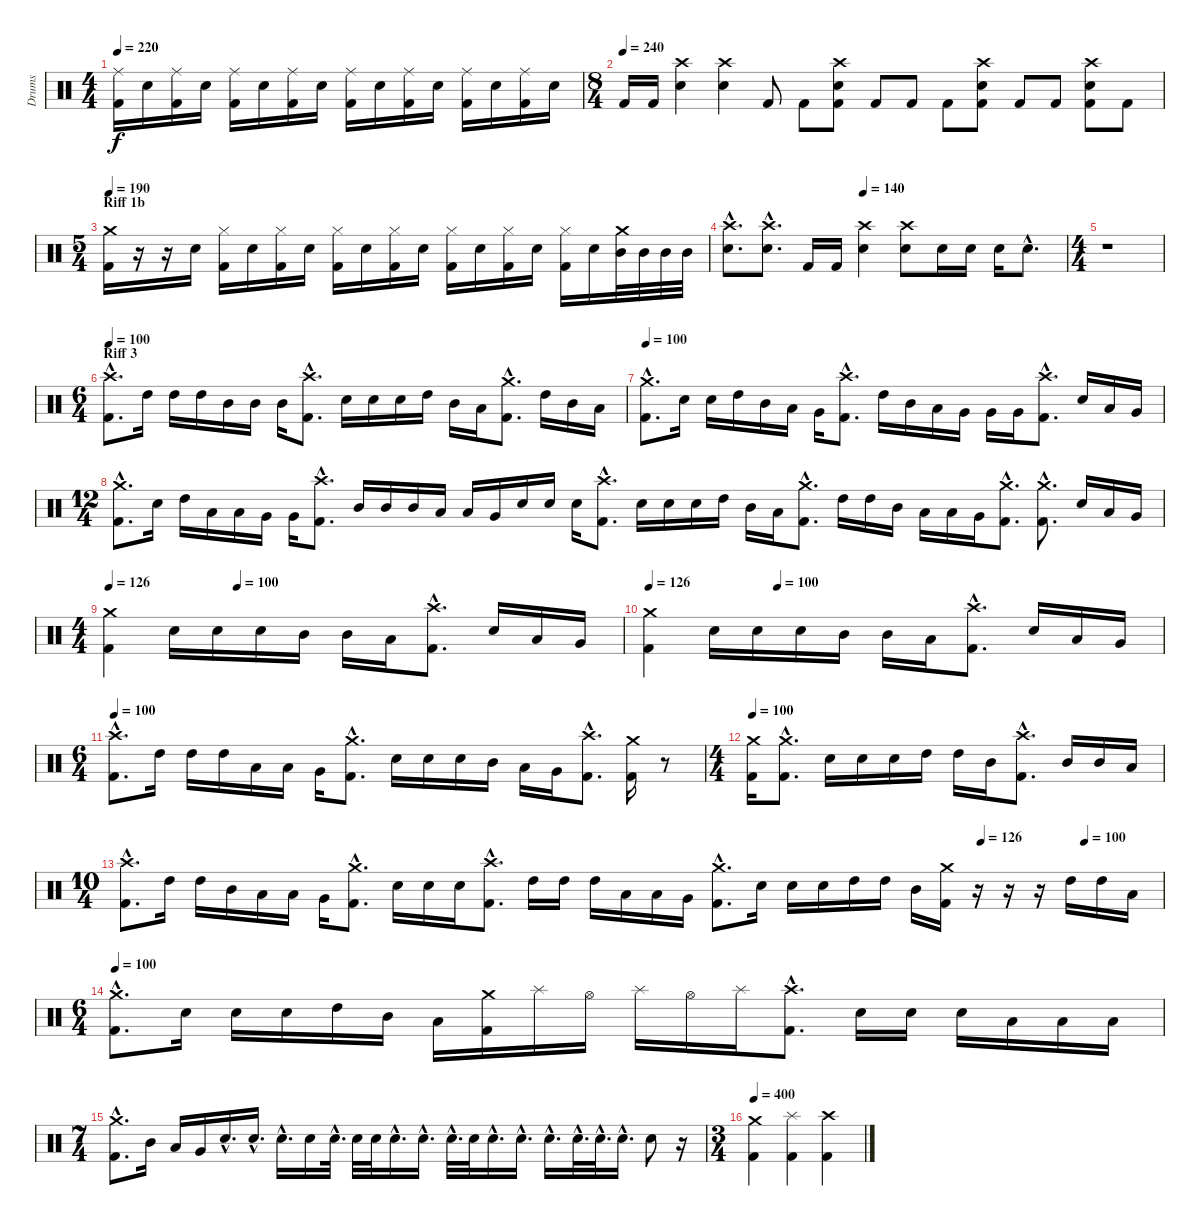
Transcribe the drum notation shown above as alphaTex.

\track ("Drums" "Drums") {instrument percussion}
\staff {score}
\articulation defaults
\ts (4 4)
\tempo 220
\clef neutral
\ks c
("Ride (middle)" "Kick (hit) 2").16{dy f} "Electric Snare (hit)".16 ("Ride (middle)" "Kick (hit) 2").16 "Electric Snare (hit)".16 ("Ride (middle)" "Kick (hit) 2").16 "Electric Snare (hit)".16 ("Ride (middle)" "Kick (hit) 2").16 "Electric Snare (hit)".16 ("Ride (middle)" "Kick (hit) 2").16 "Electric Snare (hit)".16 ("Ride (middle)" "Kick (hit) 2").16 "Electric Snare (hit)".16 ("Ride (middle)" "Kick (hit) 2").16 "Electric Snare (hit)".16 ("Ride (middle)" "Kick (hit) 2").16 "Electric Snare (hit)".16 |
\ts (8 4)
\tempo (240)
"Kick (hit) 2".16 "Kick (hit) 2".16 ("Crash high (hit)" "Electric Snare (hit)").4 ("Crash high (hit)" "Electric Snare (hit)").4 "Kick (hit) 2".8 "Kick (hit) 2".8 ("Crash high (hit)" "Electric Snare (hit)" "Kick (hit) 2").8 "Kick (hit) 2".8 "Kick (hit) 2".8 "Kick (hit) 2".8 ("Crash high (hit)" "Electric Snare (hit)" "Kick (hit) 2").8 "Kick (hit) 2".8 "Kick (hit) 2".8 ("Crash high (hit)" "Electric Snare (hit)" "Kick (hit) 2").8 "Kick (hit) 2".8 |
\ts (5 4)
\section ("" "Riff 1b")
\tempo 190
("Crash medium (hit)" "Kick (hit) 2").16 r.16 r.16 "Electric Snare (hit)".16 ("Hi-Hat (closed)" "Kick (hit) 2").16 "Electric Snare (hit)".16 ("Hi-Hat (closed)" "Kick (hit) 2").16 "Electric Snare (hit)".16 ("Hi-Hat (closed)" "Kick (hit) 2").16 "Electric Snare (hit)".16 ("Hi-Hat (closed)" "Kick (hit) 2").16 "Electric Snare (hit)".16 ("Hi-Hat (closed)" "Kick (hit) 2").16 "Electric Snare (hit)".16 ("Hi-Hat (closed)" "Kick (hit) 2").16 "Electric Snare (hit)".16 ("Hi-Hat (closed)" "Kick (hit) 2").16 "Electric Snare (hit)".16 ("Crash medium (hit)" "Mid Tom (hit)").32 "Mid Tom (hit)".32 "Mid Tom (hit)".32 "Mid Tom (hit)".32 |
\tempo (140 0.4)
("Crash high (hit)"{hac} "Electric Snare (hit)"{hac}).8{d} ("Crash high (hit)"{hac} "Electric Snare (hit)"{hac}).8{d} "Kick (hit) 2".16 "Kick (hit) 2".16 ("Crash high (hit)" "Electric Snare (hit)").4 ("Crash high (hit)" "Electric Snare (hit)").8 "Electric Snare (hit)".16 "Electric Snare (hit)".16 "Electric Snare (hit)".16 "Electric Snare (hit)"{hac}.8{d} |
\ts (4 4)
r.1 |
\ts (6 4)
\section ("" "Riff 3")
\tempo 100
("Crash high (hit)"{hac} "Kick (hit) 2"{hac}).8{d} "High Tom (hit)".16 "High Tom (hit)".16 "High Tom (hit)".16 "Mid Tom (hit)".16 "Mid Tom (hit)".16 "Mid Tom (hit)".16 ("Crash high (hit)"{hac} "Kick (hit) 2"{hac}).8{d} "Electric Snare (hit)".16 "Electric Snare (hit)".16 "Electric Snare (hit)".16 "High Tom (hit)".16 "Mid Tom (hit)".16 "Low Tom (hit)".16 ("Crash medium (hit)"{hac} "Kick (hit) 2"{hac}).8{d} "High Tom (hit)".16 "Mid Tom (hit)".16 "Low Tom (hit)".16 |
\tempo 100
("Crash medium (hit)"{hac} "Kick (hit) 2"{hac}).8{d} "Electric Snare (hit)".16 "Electric Snare (hit)".16 "High Tom (hit)".16 "Mid Tom (hit)".16 "Low Tom (hit)".16 "Very Low Tom (hit)".16 ("Crash high (hit)"{hac} "Kick (hit) 2"{hac}).8{d} "High Tom (hit)".16 "Mid Tom (hit)".16 "Low Tom (hit)".16 "Very Low Tom (hit)".16 "Very Low Tom (hit)".16 "Very Low Tom (hit)".16 ("Crash high (hit)"{hac} "Kick (hit) 2"{hac}).8{d} "Electric Snare (hit)".16 "Low Tom (hit)".16 "Very Low Tom (hit)".16 |
\ts (12 4)
("Crash medium (hit)"{hac} "Kick (hit) 2"{hac}).8{d} "Electric Snare (hit)".16 "High Tom (hit)".16 "Low Tom (hit)".16 "Low Tom (hit)".16 "Very Low Tom (hit)".16 "Very Low Tom (hit)".16 ("Crash high (hit)"{hac} "Kick (hit) 2"{hac}).8{d} "Mid Tom (hit)".16 "Mid Tom (hit)".16 "Mid Tom (hit)".16 "Low Tom (hit)".16 "Low Tom (hit)".16 "Very Low Tom (hit)".16 "Electric Snare (hit)".16 "Electric Snare (hit)".16 "Electric Snare (hit)".16 ("Crash high (hit)"{hac} "Kick (hit) 2"{hac}).8{d} "Electric Snare (hit)".16 "Electric Snare (hit)".16 "Electric Snare (hit)".16 "High Tom (hit)".16 "Mid Tom (hit)".16 "Low Tom (hit)".16 ("Crash medium (hit)"{hac} "Kick (hit) 2"{hac}).8{d} "High Tom (hit)".16 "High Tom (hit)".16 "Mid Tom (hit)".16 "Low Tom (hit)".16 "Low Tom (hit)".16 "Very Low Tom (hit)".16 ("Crash medium (hit)"{hac} "Kick (hit) 2"{hac}).8{d} ("Crash medium (hit)"{hac} "Kick (hit) 2"{hac}).8{d} "Electric Snare (hit)".16 "Low Tom (hit)".16 "Very Low Tom (hit)".16 |
\ts (4 4)
\tempo 126
\tempo (100 0.25)
("Crash medium (hit)" "Kick (hit) 2").4 "Electric Snare (hit)".16 "Electric Snare (hit)".16 "Electric Snare (hit)".16 "Mid Tom (hit)".16 "Mid Tom (hit)".16 "Low Tom (hit)".16 ("Crash high (hit)"{hac} "Kick (hit) 2"{hac}).8{d} "Electric Snare (hit)".16 "Low Tom (hit)".16 "Very Low Tom (hit)".16 |
\tempo 126
\tempo (100 0.25)
("Crash medium (hit)" "Kick (hit) 2").4 "Electric Snare (hit)".16 "Electric Snare (hit)".16 "Electric Snare (hit)".16 "Mid Tom (hit)".16 "Mid Tom (hit)".16 "Low Tom (hit)".16 ("Crash high (hit)"{hac} "Kick (hit) 2"{hac}).8{d} "Electric Snare (hit)".16 "Low Tom (hit)".16 "Very Low Tom (hit)".16 |
\ts (6 4)
\tempo 100
("Crash high (hit)"{hac} "Kick (hit) 2"{hac}).8{d} "High Tom (hit)".16 "High Tom (hit)".16 "High Tom (hit)".16 "Low Tom (hit)".16 "Low Tom (hit)".16 "Very Low Tom (hit)".16 ("Crash medium (hit)"{hac} "Kick (hit) 2"{hac}).8{d} "Electric Snare (hit)".16 "Electric Snare (hit)".16 "Electric Snare (hit)".16 "Mid Tom (hit)".16 "Low Tom (hit)".16 "Very Low Tom (hit)".16 ("Crash high (hit)"{hac} "Kick (hit) 2"{hac}).8{d} ("Crash medium (hit)" "Kick (hit) 2").16 r.8 |
\ts (4 4)
\tempo 100
("Crash medium (hit)" "Kick (hit) 2").16 ("Crash medium (hit)"{hac} "Kick (hit) 2"{hac}).8{d} "Electric Snare (hit)".16 "Electric Snare (hit)".16 "Electric Snare (hit)".16 "High Tom (hit)".16 "High Tom (hit)".16 "Mid Tom (hit)".16 ("Crash high (hit)"{hac} "Kick (hit) 2"{hac}).8{d} "Mid Tom (hit)".16 "Mid Tom (hit)".16 "Low Tom (hit)".16 |
\ts (10 4)
\tempo (126 0.825)
\tempo (100 0.925)
("Crash high (hit)"{hac} "Kick (hit) 2"{hac}).8{d} "High Tom (hit)".16 "High Tom (hit)".16 "Mid Tom (hit)".16 "Low Tom (hit)".16 "Low Tom (hit)".16 "Very Low Tom (hit)".16 ("Crash medium (hit)"{hac} "Kick (hit) 2"{hac}).8{d} "Electric Snare (hit)".16 "Electric Snare (hit)".16 "Electric Snare (hit)".16 ("Crash high (hit)"{hac} "Kick (hit) 2"{hac}).8{d} "High Tom (hit)".16 "High Tom (hit)".16 "High Tom (hit)".16 "Low Tom (hit)".16 "Low Tom (hit)".16 "Very Low Tom (hit)".16 ("Crash medium (hit)"{hac} "Kick (hit) 2"{hac}).8{d} "Electric Snare (hit)".16 "Electric Snare (hit)".16 "Electric Snare (hit)".16 "High Tom (hit)".16 "High Tom (hit)".16 "Mid Tom (hit)".16 ("Crash medium (hit)" "Kick (hit) 2").16 r.16 r.16 r.16 "High Tom (hit)".16 "High Tom (hit)".16 "Low Tom (hit)".16 |
\ts (6 4)
\tempo 100
("Crash medium (hit)"{hac} "Kick (hit) 2"{hac}).8{d} "Electric Snare (hit)".16 "Electric Snare (hit)".16 "Electric Snare (hit)".16 "High Tom (hit)".16 "Mid Tom (hit)".16 "Low Tom (hit)".16 ("Crash medium (hit)" "Kick (hit) 2").16 "Splash (hit)".16 "Hi-Hat (open)".16 "Splash (hit)".16 "Hi-Hat (open)".16 "Splash (hit)".16 ("Crash high (hit)"{hac} "Kick (hit) 2"{hac}).8{d} "Electric Snare (hit)".16 "Electric Snare (hit)".16 "Electric Snare (hit)".16 "Low Tom (hit)".16 "Low Tom (hit)".16 "Low Tom (hit)".16 |
\ts (7 4)
("Crash medium (hit)"{hac} "Kick (hit) 2"{hac}).8{d} "Mid Tom (hit)".16 "Low Tom (hit)".16 "Very Low Tom (hit)".16 "Electric Snare (hit)"{hac}.16{d} "Electric Snare (hit)"{hac}.16{d} "Electric Snare (hit)"{hac}.16{d} "Electric Snare (hit)".16 "Electric Snare (hit)"{hac}.32{d} "Electric Snare (hit)".32 "Electric Snare (hit)".32 "Electric Snare (hit)"{hac}.16{d} "Electric Snare (hit)"{hac}.16{d} "Electric Snare (hit)"{hac}.32{d} "Electric Snare (hit)".32 "Electric Snare (hit)"{hac}.16{d} "Electric Snare (hit)"{hac}.16{d} "Electric Snare (hit)"{hac}.16{d} "Electric Snare (hit)"{hac}.32{d} "Electric Snare (hit)"{hac}.32{d} "Electric Snare (hit)"{hac}.16{d} "Electric Snare (hit)".8 r.16 |
\ts (3 4)
\tempo 400
("Crash medium (hit)" "Kick (hit) 2").4 ("Splash (hit)" "Kick (hit) 2").4 ("Crash high (hit)" "Kick (hit) 2").4
